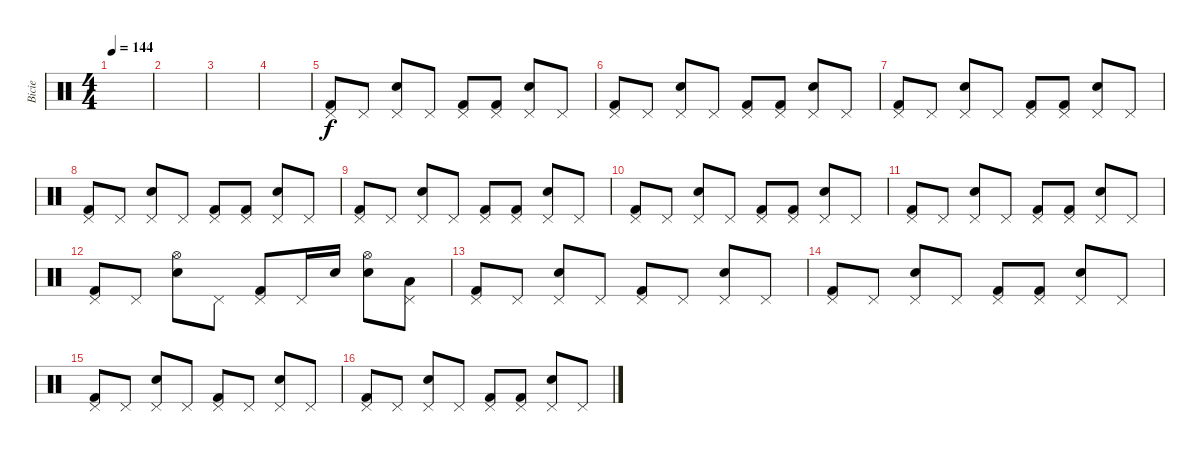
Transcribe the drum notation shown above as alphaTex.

\track ("Bicie" "Bicie") {instrument percussion}
\staff {score}
\articulation defaults
\ts (4 4)
\tempo 144
\clef neutral
\ks c
|
|
|
|
("Pedal Hi-Hat (hit)" "Kick (hit) 2").8 "Pedal Hi-Hat (hit)".8 ("Pedal Hi-Hat (hit)" "Snare (hit) 2").8 "Pedal Hi-Hat (hit)".8 ("Pedal Hi-Hat (hit)" "Kick (hit) 2").8 ("Pedal Hi-Hat (hit)" "Kick (hit) 2").8 ("Pedal Hi-Hat (hit)" "Snare (hit) 2").8 "Pedal Hi-Hat (hit)".8 |
("Pedal Hi-Hat (hit)" "Kick (hit) 2").8 "Pedal Hi-Hat (hit)".8 ("Pedal Hi-Hat (hit)" "Snare (hit) 2").8 "Pedal Hi-Hat (hit)".8 ("Pedal Hi-Hat (hit)" "Kick (hit) 2").8 ("Pedal Hi-Hat (hit)" "Kick (hit) 2").8 ("Pedal Hi-Hat (hit)" "Snare (hit) 2").8 "Pedal Hi-Hat (hit)".8 |
("Pedal Hi-Hat (hit)" "Kick (hit) 2").8 "Pedal Hi-Hat (hit)".8 ("Pedal Hi-Hat (hit)" "Snare (hit) 2").8 "Pedal Hi-Hat (hit)".8 ("Pedal Hi-Hat (hit)" "Kick (hit) 2").8 ("Pedal Hi-Hat (hit)" "Kick (hit) 2").8 ("Pedal Hi-Hat (hit)" "Snare (hit) 2").8 "Pedal Hi-Hat (hit)".8 |
("Pedal Hi-Hat (hit)" "Kick (hit) 2").8 "Pedal Hi-Hat (hit)".8 ("Pedal Hi-Hat (hit)" "Snare (hit) 2").8 "Pedal Hi-Hat (hit)".8 ("Pedal Hi-Hat (hit)" "Kick (hit) 2").8 ("Pedal Hi-Hat (hit)" "Kick (hit) 2").8 ("Pedal Hi-Hat (hit)" "Snare (hit) 2").8 "Pedal Hi-Hat (hit)".8 |
("Pedal Hi-Hat (hit)" "Kick (hit) 2").8 "Pedal Hi-Hat (hit)".8 ("Pedal Hi-Hat (hit)" "Snare (hit) 2").8 "Pedal Hi-Hat (hit)".8 ("Pedal Hi-Hat (hit)" "Kick (hit) 2").8 ("Pedal Hi-Hat (hit)" "Kick (hit) 2").8 ("Pedal Hi-Hat (hit)" "Snare (hit) 2").8 "Pedal Hi-Hat (hit)".8 |
("Pedal Hi-Hat (hit)" "Kick (hit) 2").8 "Pedal Hi-Hat (hit)".8 ("Pedal Hi-Hat (hit)" "Snare (hit) 2").8 "Pedal Hi-Hat (hit)".8 ("Pedal Hi-Hat (hit)" "Kick (hit) 2").8 ("Pedal Hi-Hat (hit)" "Kick (hit) 2").8 ("Pedal Hi-Hat (hit)" "Snare (hit) 2").8 "Pedal Hi-Hat (hit)".8 |
("Pedal Hi-Hat (hit)" "Kick (hit) 2").8 "Pedal Hi-Hat (hit)".8 ("Pedal Hi-Hat (hit)" "Snare (hit) 2").8 "Pedal Hi-Hat (hit)".8 ("Pedal Hi-Hat (hit)" "Kick (hit) 2").8 ("Pedal Hi-Hat (hit)" "Kick (hit) 2").8 ("Pedal Hi-Hat (hit)" "Snare (hit) 2").8 "Pedal Hi-Hat (hit)".8 |
("Pedal Hi-Hat (hit)" "Kick (hit) 2").8 "Pedal Hi-Hat (hit)".8 ("Hi-Hat (open)" "Snare (hit) 2").8 "Pedal Hi-Hat (hit)".8 ("Pedal Hi-Hat (hit)" "Kick (hit) 2").8 "Pedal Hi-Hat (hit)".16 "Snare (hit) 2".16 ("Hi-Hat (open)" "Snare (hit) 2").8 ("Pedal Hi-Hat (hit)" "Low Tom (hit)").8 |
("Pedal Hi-Hat (hit)" "Kick (hit) 2").8 "Pedal Hi-Hat (hit)".8 ("Pedal Hi-Hat (hit)" "Snare (hit) 2").8 "Pedal Hi-Hat (hit)".8 ("Pedal Hi-Hat (hit)" "Kick (hit) 2").8 "Pedal Hi-Hat (hit)".8 ("Pedal Hi-Hat (hit)" "Snare (hit) 2").8 "Pedal Hi-Hat (hit)".8 |
("Pedal Hi-Hat (hit)" "Kick (hit) 2").8 "Pedal Hi-Hat (hit)".8 ("Pedal Hi-Hat (hit)" "Snare (hit) 2").8 "Pedal Hi-Hat (hit)".8 ("Pedal Hi-Hat (hit)" "Kick (hit) 2").8 ("Pedal Hi-Hat (hit)" "Kick (hit) 2").8 ("Pedal Hi-Hat (hit)" "Snare (hit) 2").8 "Pedal Hi-Hat (hit)".8 |
("Pedal Hi-Hat (hit)" "Kick (hit) 2").8 "Pedal Hi-Hat (hit)".8 ("Pedal Hi-Hat (hit)" "Snare (hit) 2").8 "Pedal Hi-Hat (hit)".8 ("Pedal Hi-Hat (hit)" "Kick (hit) 2").8 "Pedal Hi-Hat (hit)".8 ("Pedal Hi-Hat (hit)" "Snare (hit) 2").8 "Pedal Hi-Hat (hit)".8 |
("Pedal Hi-Hat (hit)" "Kick (hit) 2").8 "Pedal Hi-Hat (hit)".8 ("Pedal Hi-Hat (hit)" "Snare (hit) 2").8 "Pedal Hi-Hat (hit)".8 ("Pedal Hi-Hat (hit)" "Kick (hit) 2").8 ("Pedal Hi-Hat (hit)" "Kick (hit) 2").8 ("Pedal Hi-Hat (hit)" "Snare (hit) 2").8 "Pedal Hi-Hat (hit)".8
